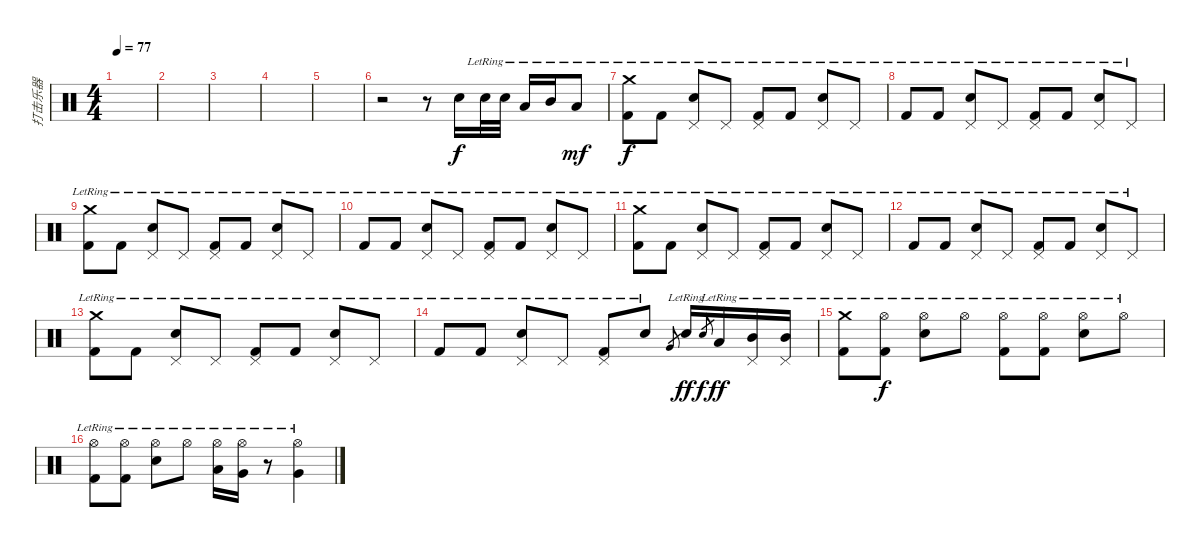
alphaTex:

\track ("打击乐器" "打击乐器") {instrument percussion}
\staff {score}
\articulation defaults
\ts (4 4)
\tempo 77
\clef neutral
\ks c
|
|
|
|
|
r.2 r.8 "Snare (hit)".16 "Electric Snare (hit)"{lr}.32 "Electric Snare (hit)"{lr}.32 "Low Tom (hit)"{lr}.16 "Mid Tom (hit)"{lr}.16 "Low Tom (hit)"{lr}.8{dy mf} |
("Kick (hit) 2"{lr} "Crash medium (hit)"{lr}).8{dy f} "Kick (hit) 2"{lr}.8 ("Snare (hit) 2"{lr} "Pedal Hi-Hat (hit)"{lr}).8 "Pedal Hi-Hat (hit)"{lr}.8 ("Kick (hit) 2"{lr} "Pedal Hi-Hat (hit)"{lr}).8 "Kick (hit) 2"{lr}.8 ("Electric Snare (hit)"{lr} "Pedal Hi-Hat (hit)"{lr}).8 "Pedal Hi-Hat (hit)"{lr}.8 |
"Kick (hit) 2"{lr}.8 "Kick (hit) 2"{lr}.8 ("Snare (hit) 2"{lr} "Pedal Hi-Hat (hit)"{lr}).8 "Pedal Hi-Hat (hit)"{lr}.8 ("Kick (hit) 2"{lr} "Pedal Hi-Hat (hit)"{lr}).8 "Kick (hit) 2"{lr}.8 ("Electric Snare (hit)"{lr} "Pedal Hi-Hat (hit)"{lr}).8 "Pedal Hi-Hat (hit)"{lr}.8 |
("Kick (hit) 2"{lr} "Crash medium (hit)"{lr}).8 "Kick (hit) 2"{lr}.8 ("Snare (hit) 2"{lr} "Pedal Hi-Hat (hit)"{lr}).8 "Pedal Hi-Hat (hit)"{lr}.8 ("Kick (hit) 2"{lr} "Pedal Hi-Hat (hit)"{lr}).8 "Kick (hit) 2"{lr}.8 ("Electric Snare (hit)"{lr} "Pedal Hi-Hat (hit)"{lr}).8 "Pedal Hi-Hat (hit)"{lr}.8 |
"Kick (hit) 2"{lr}.8 "Kick (hit) 2"{lr}.8 ("Snare (hit) 2"{lr} "Pedal Hi-Hat (hit)"{lr}).8 "Pedal Hi-Hat (hit)"{lr}.8 ("Kick (hit) 2"{lr} "Pedal Hi-Hat (hit)"{lr}).8 "Kick (hit) 2"{lr}.8 ("Electric Snare (hit)"{lr} "Pedal Hi-Hat (hit)"{lr}).8 "Pedal Hi-Hat (hit)"{lr}.8 |
("Kick (hit) 2"{lr} "Crash medium (hit)"{lr}).8 "Kick (hit) 2"{lr}.8 ("Snare (hit) 2"{lr} "Pedal Hi-Hat (hit)"{lr}).8 "Pedal Hi-Hat (hit)"{lr}.8 ("Kick (hit) 2"{lr} "Pedal Hi-Hat (hit)"{lr}).8 "Kick (hit) 2"{lr}.8 ("Electric Snare (hit)"{lr} "Pedal Hi-Hat (hit)"{lr}).8 "Pedal Hi-Hat (hit)"{lr}.8 |
"Kick (hit) 2"{lr}.8 "Kick (hit) 2"{lr}.8 ("Snare (hit) 2"{lr} "Pedal Hi-Hat (hit)"{lr}).8 "Pedal Hi-Hat (hit)"{lr}.8 ("Kick (hit) 2"{lr} "Pedal Hi-Hat (hit)"{lr}).8 "Kick (hit) 2"{lr}.8 ("Electric Snare (hit)"{lr} "Pedal Hi-Hat (hit)"{lr}).8 "Pedal Hi-Hat (hit)"{lr}.8 |
("Kick (hit) 2"{lr} "Crash medium (hit)"{lr}).8 "Kick (hit) 2"{lr}.8 ("Snare (hit) 2"{lr} "Pedal Hi-Hat (hit)"{lr}).8 "Pedal Hi-Hat (hit)"{lr}.8 ("Kick (hit) 2"{lr} "Pedal Hi-Hat (hit)"{lr}).8 "Kick (hit) 2"{lr}.8 ("Electric Snare (hit)"{lr} "Pedal Hi-Hat (hit)"{lr}).8 "Pedal Hi-Hat (hit)"{lr}.8 |
"Kick (hit) 2"{lr}.8 "Kick (hit) 2"{lr}.8 ("Snare (hit) 2"{lr} "Pedal Hi-Hat (hit)"{lr}).8 "Pedal Hi-Hat (hit)"{lr}.8 ("Kick (hit) 2"{lr} "Pedal Hi-Hat (hit)"{lr}).8 "Snare (hit) 2"{lr}.8 "Very Low Tom (hit)".8{gr} "Electric Snare (hit)"{lr}.16{dy ff} "Electric Snare (hit)".8{gr dy f} "Low Tom (hit)"{lr}.16{dy ff} ("Mid Tom (hit)"{lr} "Pedal Hi-Hat (hit)"{lr}).16 ("Mid Tom (hit)"{lr} "Pedal Hi-Hat (hit)"{lr}).16 |
("Kick (hit) 2"{lr} "Crash medium (hit)"{lr}).8 ("Kick (hit) 2"{lr} "Hi-Hat (open)"{lr}).8{dy f} ("Snare (hit) 2"{lr} "Hi-Hat (open)"{lr}).8 "Hi-Hat (open)"{lr}.8 ("Kick (hit) 2"{lr} "Hi-Hat (open)"{lr}).8 ("Kick (hit) 2"{lr} "Hi-Hat (open)"{lr}).8 ("Electric Snare (hit)"{lr} "Hi-Hat (open)"{lr}).8 "Hi-Hat (open)"{lr}.8 |
("Kick (hit) 2"{lr} "Hi-Hat (open)"{lr}).8 ("Kick (hit) 2"{lr} "Hi-Hat (open)"{lr}).8 ("Snare (hit) 2"{lr} "Hi-Hat (open)"{lr}).8 "Hi-Hat (open)"{lr}.8 ("Low Floor Tom (hit)"{lr} "Hi-Hat (open)"{lr}).16 ("Very Low Tom (hit)"{lr} "Hi-Hat (open)"{lr}).16 r.8 ("Very Low Tom (hit)"{lr} "Hi-Hat (open)"{lr}).4
